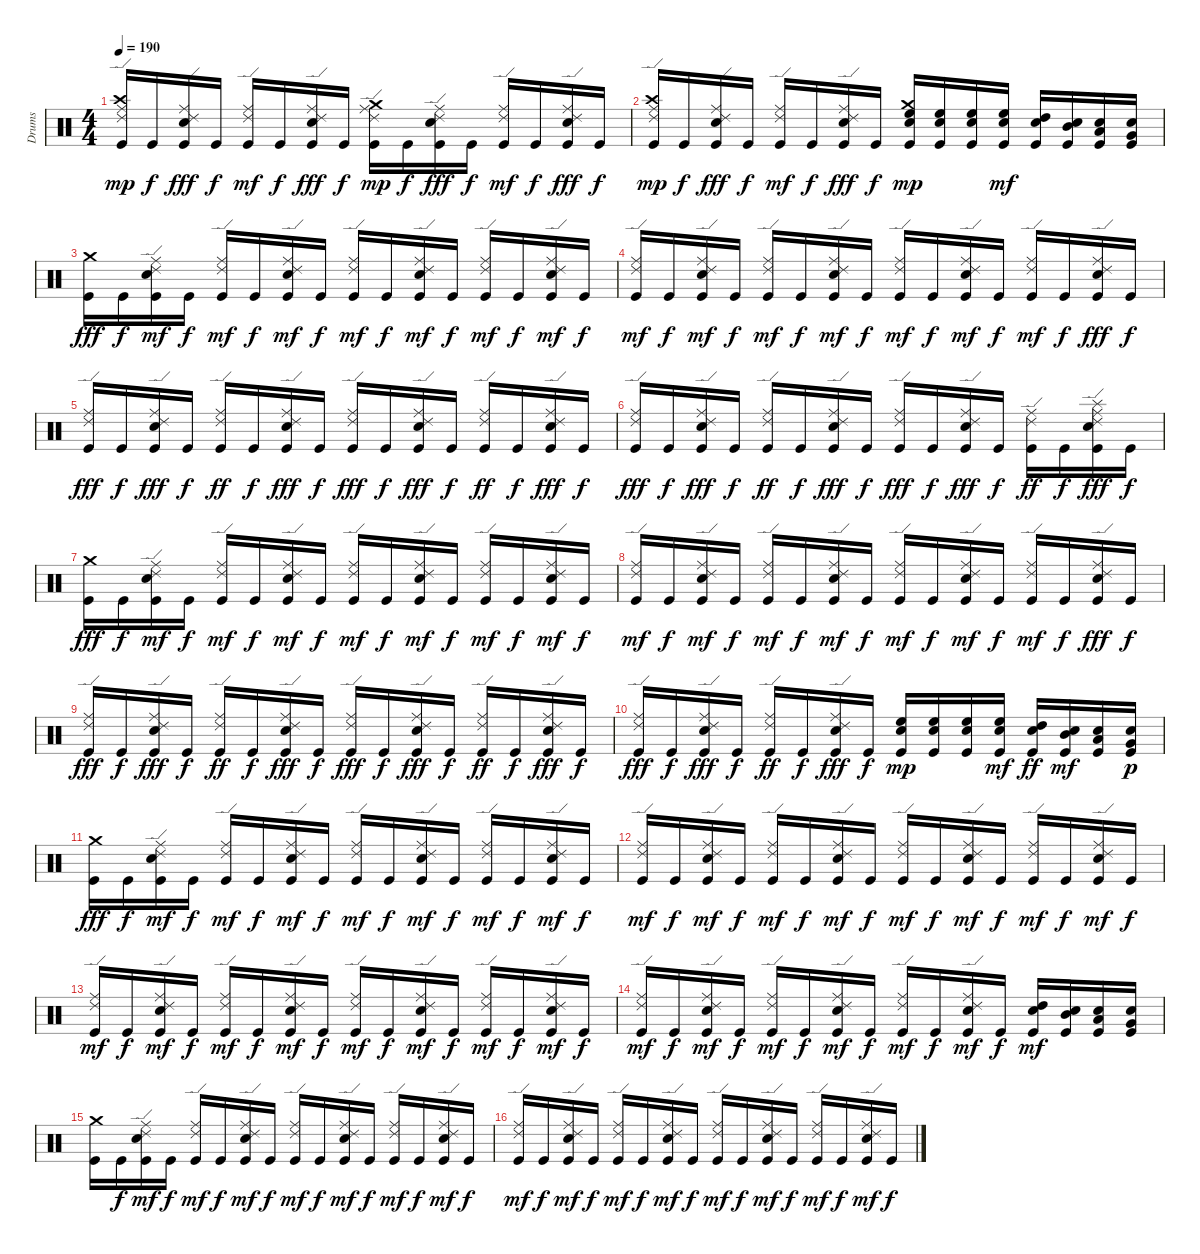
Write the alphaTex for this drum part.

\track ("Drums" "Drums") {instrument percussion}
\staff {score}
\articulation defaults
\ts (4 4)
\tempo 190
\clef neutral
\ks c
("Ride (edge) 2" "Ride (middle)" "Crash high (hit)" "Kick (hit)").16{dy mp} "Kick (hit)".16{dy f} ("Electric Snare (hit)" "Kick (hit)" "Ride (middle)" "Ride (edge) 2").16{dy fff} "Kick (hit)".16{dy f} ("Ride (edge) 2" "Ride (middle)" "Kick (hit)").16{dy mf} "Kick (hit)".16{dy f} ("Ride (edge) 2" "Ride (middle)" "Electric Snare (hit)" "Kick (hit)").16{dy fff} "Kick (hit)".16{dy f} ("Kick (hit)" "Crash medium (hit)" "Ride (edge) 2" "Ride (middle)").16{dy mp} "Kick (hit)".16{dy f} ("Electric Snare (hit)" "Kick (hit)" "Ride (middle)" "Ride (edge) 2").16{dy fff} "Kick (hit)".16{dy f} ("Kick (hit)" "Ride (edge) 2" "Ride (middle)").16{dy mf} "Kick (hit)".16{dy f} ("Electric Snare (hit)" "Kick (hit)" "Ride (edge) 2" "Ride (middle)").16{dy fff} "Kick (hit)".16{dy f} |
("Kick (hit)" "Crash high (hit)" "Ride (edge) 2" "Ride (middle)").16{dy mp} "Kick (hit)".16{dy f} ("Electric Snare (hit)" "Kick (hit)" "Ride (middle)" "Ride (edge) 2").16{dy fff} "Kick (hit)".16{dy f} ("Kick (hit)" "Ride (edge) 2" "Ride (middle)").16{dy mf} "Kick (hit)".16{dy f} ("Electric Snare (hit)" "Kick (hit)" "Ride (edge) 2" "Ride (middle)").16{dy fff} "Kick (hit)".16{dy f} ("Crash medium (hit)" "High Floor Tom (hit)" "Kick (hit)" "Electric Snare (hit)").16{dy mp} ("High Floor Tom (hit)" "Kick (hit)" "Electric Snare (hit)").16 ("High Floor Tom (hit)" "Electric Snare (hit)" "Kick (hit)").16 ("Electric Snare (hit)" "High Floor Tom (hit)" "Kick (hit)").16{dy mf} ("Kick (hit)" "Electric Snare (hit)" "High Tom (hit)").16 ("Kick (hit)" "Mid Tom (hit)" "Electric Snare (hit)").16 ("Kick (hit)" "Electric Snare (hit)" "Low Tom (hit)").16 ("Kick (hit)" "Very Low Tom (hit)" "Electric Snare (hit)").16 |
("Kick (hit)" "Crash medium (hit)").16{dy fff} "Kick (hit)".16{dy f} ("Electric Snare (hit)" "Kick (hit)" "Ride (edge) 2" "Ride (middle)").16{dy mf} "Kick (hit)".16{dy f} ("Kick (hit)" "Ride (edge) 2" "Ride (middle)").16{dy mf} "Kick (hit)".16{dy f} ("Electric Snare (hit)" "Kick (hit)" "Ride (edge) 2" "Ride (middle)").16{dy mf} "Kick (hit)".16{dy f} ("Kick (hit)" "Ride (edge) 2" "Ride (middle)").16{dy mf} "Kick (hit)".16{dy f} ("Electric Snare (hit)" "Kick (hit)" "Ride (edge) 2" "Ride (middle)").16{dy mf} "Kick (hit)".16{dy f} ("Kick (hit)" "Ride (edge) 2" "Ride (middle)").16{dy mf} "Kick (hit)".16{dy f} ("Electric Snare (hit)" "Kick (hit)" "Ride (edge) 2" "Ride (middle)").16{dy mf} "Kick (hit)".16{dy f} |
("Kick (hit)" "Ride (middle)" "Ride (edge) 2").16{dy mf} "Kick (hit)".16{dy f} ("Ride (edge) 2" "Ride (middle)" "Kick (hit)" "Electric Snare (hit)").16{dy mf} "Kick (hit)".16{dy f} ("Kick (hit)" "Ride (middle)" "Ride (edge) 2").16{dy mf} "Kick (hit)".16{dy f} ("Electric Snare (hit)" "Kick (hit)" "Ride (edge) 2" "Ride (middle)").16{dy mf} "Kick (hit)".16{dy f} ("Kick (hit)" "Ride (edge) 2" "Ride (middle)").16{dy mf} "Kick (hit)".16{dy f} ("Kick (hit)" "Ride (middle)" "Ride (edge) 2" "Electric Snare (hit)").16{dy mf} "Kick (hit)".16{dy f} ("Kick (hit)" "Ride (edge) 2" "Ride (middle)").16{dy mf} "Kick (hit)".16{dy f} ("Kick (hit)" "Electric Snare (hit)" "Ride (middle)" "Ride (edge) 2").16{dy fff} "Kick (hit)".16{dy f} |
("Ride (edge) 2" "Ride (middle)" "Kick (hit)").16{dy fff} "Kick (hit)".16{dy f} ("Ride (edge) 2" "Ride (middle)" "Electric Snare (hit)" "Kick (hit)").16{dy fff} "Kick (hit)".16{dy f} ("Ride (edge) 2" "Ride (middle)" "Kick (hit)").16{dy ff} "Kick (hit)".16{dy f} ("Electric Snare (hit)" "Kick (hit)" "Ride (middle)" "Ride (edge) 2").16{dy fff} "Kick (hit)".16{dy f} ("Kick (hit)" "Ride (edge) 2" "Ride (middle)").16{dy fff} "Kick (hit)".16{dy f} ("Electric Snare (hit)" "Kick (hit)" "Ride (edge) 2" "Ride (middle)").16{dy fff} "Kick (hit)".16{dy f} ("Kick (hit)" "Ride (edge) 2" "Ride (middle)").16{dy ff} "Kick (hit)".16{dy f} ("Electric Snare (hit)" "Kick (hit)" "Ride (middle)" "Ride (edge) 2").16{dy fff} "Kick (hit)".16{dy f} |
("Kick (hit)" "Ride (edge) 2" "Ride (middle)").16{dy fff} "Kick (hit)".16{dy f} ("Kick (hit)" "Electric Snare (hit)" "Ride (edge) 2" "Ride (middle)").16{dy fff} "Kick (hit)".16{dy f} ("Kick (hit)" "Ride (edge) 2" "Ride (middle)").16{dy ff} "Kick (hit)".16{dy f} ("Electric Snare (hit)" "Kick (hit)" "Ride (middle)" "Ride (edge) 2").16{dy fff} "Kick (hit)".16{dy f} ("Kick (hit)" "Ride (edge) 2" "Ride (middle)").16{dy fff} "Kick (hit)".16{dy f} ("Kick (hit)" "Electric Snare (hit)" "Ride (edge) 2" "Ride (middle)").16{dy fff} "Kick (hit)".16{dy f} ("Kick (hit)" "Ride (edge) 2" "Ride (middle)").16{dy ff} "Kick (hit)".16{dy f} ("Splash (hit)" "Kick (hit)" "Electric Snare (hit)" "Ride (middle)" "Ride (edge) 2").16{dy fff} "Kick (hit)".16{dy f} |
("Kick (hit)" "Crash medium (hit)").16{dy fff} "Kick (hit)".16{dy f} ("Electric Snare (hit)" "Kick (hit)" "Ride (edge) 2" "Ride (middle)").16{dy mf} "Kick (hit)".16{dy f} ("Kick (hit)" "Ride (edge) 2" "Ride (middle)").16{dy mf} "Kick (hit)".16{dy f} ("Electric Snare (hit)" "Kick (hit)" "Ride (edge) 2" "Ride (middle)").16{dy mf} "Kick (hit)".16{dy f} ("Kick (hit)" "Ride (edge) 2" "Ride (middle)").16{dy mf} "Kick (hit)".16{dy f} ("Electric Snare (hit)" "Kick (hit)" "Ride (edge) 2" "Ride (middle)").16{dy mf} "Kick (hit)".16{dy f} ("Kick (hit)" "Ride (edge) 2" "Ride (middle)").16{dy mf} "Kick (hit)".16{dy f} ("Electric Snare (hit)" "Kick (hit)" "Ride (edge) 2" "Ride (middle)").16{dy mf} "Kick (hit)".16{dy f} |
("Kick (hit)" "Ride (middle)" "Ride (edge) 2").16{dy mf} "Kick (hit)".16{dy f} ("Ride (edge) 2" "Ride (middle)" "Kick (hit)" "Electric Snare (hit)").16{dy mf} "Kick (hit)".16{dy f} ("Kick (hit)" "Ride (middle)" "Ride (edge) 2").16{dy mf} "Kick (hit)".16{dy f} ("Electric Snare (hit)" "Kick (hit)" "Ride (edge) 2" "Ride (middle)").16{dy mf} "Kick (hit)".16{dy f} ("Kick (hit)" "Ride (edge) 2" "Ride (middle)").16{dy mf} "Kick (hit)".16{dy f} ("Kick (hit)" "Ride (middle)" "Ride (edge) 2" "Electric Snare (hit)").16{dy mf} "Kick (hit)".16{dy f} ("Kick (hit)" "Ride (edge) 2" "Ride (middle)").16{dy mf} "Kick (hit)".16{dy f} ("Kick (hit)" "Electric Snare (hit)" "Ride (middle)" "Ride (edge) 2").16{dy fff} "Kick (hit)".16{dy f} |
("Ride (edge) 2" "Ride (middle)" "Kick (hit)").16{dy fff} "Kick (hit)".16{dy f} ("Ride (edge) 2" "Ride (middle)" "Electric Snare (hit)" "Kick (hit)").16{dy fff} "Kick (hit)".16{dy f} ("Ride (edge) 2" "Ride (middle)" "Kick (hit)").16{dy ff} "Kick (hit)".16{dy f} ("Electric Snare (hit)" "Kick (hit)" "Ride (middle)" "Ride (edge) 2").16{dy fff} "Kick (hit)".16{dy f} ("Kick (hit)" "Ride (edge) 2" "Ride (middle)").16{dy fff} "Kick (hit)".16{dy f} ("Electric Snare (hit)" "Kick (hit)" "Ride (edge) 2" "Ride (middle)").16{dy fff} "Kick (hit)".16{dy f} ("Kick (hit)" "Ride (edge) 2" "Ride (middle)").16{dy ff} "Kick (hit)".16{dy f} ("Electric Snare (hit)" "Kick (hit)" "Ride (middle)" "Ride (edge) 2").16{dy fff} "Kick (hit)".16{dy f} |
("Kick (hit)" "Ride (edge) 2" "Ride (middle)").16{dy fff} "Kick (hit)".16{dy f} ("Kick (hit)" "Electric Snare (hit)" "Ride (edge) 2" "Ride (middle)").16{dy fff} "Kick (hit)".16{dy f} ("Kick (hit)" "Ride (edge) 2" "Ride (middle)").16{dy ff} "Kick (hit)".16{dy f} ("Electric Snare (hit)" "Kick (hit)" "Ride (middle)" "Ride (edge) 2").16{dy fff} "Kick (hit)".16{dy f} ("High Floor Tom (hit)" "Kick (hit)" "Electric Snare (hit)").16{dy mp} ("Kick (hit)" "High Floor Tom (hit)" "Electric Snare (hit)").16 ("High Floor Tom (hit)" "Kick (hit)" "Electric Snare (hit)").16 ("Kick (hit)" "High Floor Tom (hit)" "Electric Snare (hit)").16{dy mf} ("High Tom (hit)" "Kick (hit)" "Electric Snare (hit)").16{dy ff} ("Kick (hit)" "Mid Tom (hit)" "Electric Snare (hit)").16{dy mf} ("Kick (hit)" "Electric Snare (hit)" "Low Tom (hit)").16 ("Electric Snare (hit)" "Kick (hit)" "Very Low Tom (hit)").16{dy p} |
("Kick (hit)" "Crash medium (hit)").16{dy fff} "Kick (hit)".16{dy f} ("Electric Snare (hit)" "Kick (hit)" "Ride (edge) 2" "Ride (middle)").16{dy mf} "Kick (hit)".16{dy f} ("Kick (hit)" "Ride (edge) 2" "Ride (middle)").16{dy mf} "Kick (hit)".16{dy f} ("Electric Snare (hit)" "Kick (hit)" "Ride (edge) 2" "Ride (middle)").16{dy mf} "Kick (hit)".16{dy f} ("Kick (hit)" "Ride (edge) 2" "Ride (middle)").16{dy mf} "Kick (hit)".16{dy f} ("Electric Snare (hit)" "Kick (hit)" "Ride (edge) 2" "Ride (middle)").16{dy mf} "Kick (hit)".16{dy f} ("Kick (hit)" "Ride (edge) 2" "Ride (middle)").16{dy mf} "Kick (hit)".16{dy f} ("Electric Snare (hit)" "Kick (hit)" "Ride (edge) 2" "Ride (middle)").16{dy mf} "Kick (hit)".16{dy f} |
("Ride (middle)" "Ride (edge) 2" "Kick (hit)").16{dy mf} "Kick (hit)".16{dy f} ("Electric Snare (hit)" "Kick (hit)" "Ride (edge) 2" "Ride (middle)").16{dy mf} "Kick (hit)".16{dy f} ("Kick (hit)" "Ride (edge) 2" "Ride (middle)").16{dy mf} "Kick (hit)".16{dy f} ("Electric Snare (hit)" "Kick (hit)" "Ride (edge) 2" "Ride (middle)").16{dy mf} "Kick (hit)".16{dy f} ("Kick (hit)" "Ride (edge) 2" "Ride (middle)").16{dy mf} "Kick (hit)".16{dy f} ("Electric Snare (hit)" "Kick (hit)" "Ride (edge) 2" "Ride (middle)").16{dy mf} "Kick (hit)".16{dy f} ("Kick (hit)" "Ride (edge) 2" "Ride (middle)").16{dy mf} "Kick (hit)".16{dy f} ("Electric Snare (hit)" "Kick (hit)" "Ride (edge) 2" "Ride (middle)").16{dy mf} "Kick (hit)".16{dy f} |
("Ride (middle)" "Ride (edge) 2" "Kick (hit)").16{dy mf} "Kick (hit)".16{dy f} ("Electric Snare (hit)" "Kick (hit)" "Ride (edge) 2" "Ride (middle)").16{dy mf} "Kick (hit)".16{dy f} ("Kick (hit)" "Ride (edge) 2" "Ride (middle)").16{dy mf} "Kick (hit)".16{dy f} ("Electric Snare (hit)" "Kick (hit)" "Ride (edge) 2" "Ride (middle)").16{dy mf} "Kick (hit)".16{dy f} ("Kick (hit)" "Ride (edge) 2" "Ride (middle)").16{dy mf} "Kick (hit)".16{dy f} ("Electric Snare (hit)" "Kick (hit)" "Ride (edge) 2" "Ride (middle)").16{dy mf} "Kick (hit)".16{dy f} ("Kick (hit)" "Ride (edge) 2" "Ride (middle)").16{dy mf} "Kick (hit)".16{dy f} ("Electric Snare (hit)" "Kick (hit)" "Ride (edge) 2" "Ride (middle)").16{dy mf} "Kick (hit)".16{dy f} |
("Ride (middle)" "Ride (edge) 2" "Kick (hit)").16{dy mf} "Kick (hit)".16{dy f} ("Electric Snare (hit)" "Kick (hit)" "Ride (edge) 2" "Ride (middle)").16{dy mf} "Kick (hit)".16{dy f} ("Kick (hit)" "Ride (edge) 2" "Ride (middle)").16{dy mf} "Kick (hit)".16{dy f} ("Electric Snare (hit)" "Kick (hit)" "Ride (edge) 2" "Ride (middle)").16{dy mf} "Kick (hit)".16{dy f} ("Kick (hit)" "Ride (edge) 2" "Ride (middle)").16{dy mf} "Kick (hit)".16{dy f} ("Electric Snare (hit)" "Kick (hit)" "Ride (edge) 2" "Ride (middle)").16{dy mf} "Kick (hit)".16{dy f} ("Electric Snare (hit)" "Kick (hit)" "High Tom (hit)").16{dy mf} ("Electric Snare (hit)" "Kick (hit)" "Mid Tom (hit)").16 ("Electric Snare (hit)" "Kick (hit)" "Low Tom (hit)").16 ("Electric Snare (hit)" "Kick (hit)" "Very Low Tom (hit)").16 |
("Kick (hit)" "Crash medium (hit)").16 "Kick (hit)".16{dy f} ("Electric Snare (hit)" "Kick (hit)" "Ride (edge) 2" "Ride (middle)").16{dy mf} "Kick (hit)".16{dy f} ("Kick (hit)" "Ride (edge) 2" "Ride (middle)").16{dy mf} "Kick (hit)".16{dy f} ("Electric Snare (hit)" "Kick (hit)" "Ride (edge) 2" "Ride (middle)").16{dy mf} "Kick (hit)".16{dy f} ("Kick (hit)" "Ride (edge) 2" "Ride (middle)").16{dy mf} "Kick (hit)".16{dy f} ("Electric Snare (hit)" "Kick (hit)" "Ride (edge) 2" "Ride (middle)").16{dy mf} "Kick (hit)".16{dy f} ("Kick (hit)" "Ride (edge) 2" "Ride (middle)").16{dy mf} "Kick (hit)".16{dy f} ("Electric Snare (hit)" "Kick (hit)" "Ride (edge) 2" "Ride (middle)").16{dy mf} "Kick (hit)".16{dy f} |
("Ride (middle)" "Ride (edge) 2" "Kick (hit)").16{dy mf} "Kick (hit)".16{dy f} ("Electric Snare (hit)" "Kick (hit)" "Ride (edge) 2" "Ride (middle)").16{dy mf} "Kick (hit)".16{dy f} ("Kick (hit)" "Ride (edge) 2" "Ride (middle)").16{dy mf} "Kick (hit)".16{dy f} ("Electric Snare (hit)" "Kick (hit)" "Ride (edge) 2" "Ride (middle)").16{dy mf} "Kick (hit)".16{dy f} ("Kick (hit)" "Ride (edge) 2" "Ride (middle)").16{dy mf} "Kick (hit)".16{dy f} ("Electric Snare (hit)" "Kick (hit)" "Ride (edge) 2" "Ride (middle)").16{dy mf} "Kick (hit)".16{dy f} ("Kick (hit)" "Ride (edge) 2" "Ride (middle)").16{dy mf} "Kick (hit)".16{dy f} ("Electric Snare (hit)" "Kick (hit)" "Ride (edge) 2" "Ride (middle)").16{dy mf} "Kick (hit)".16{dy f}
